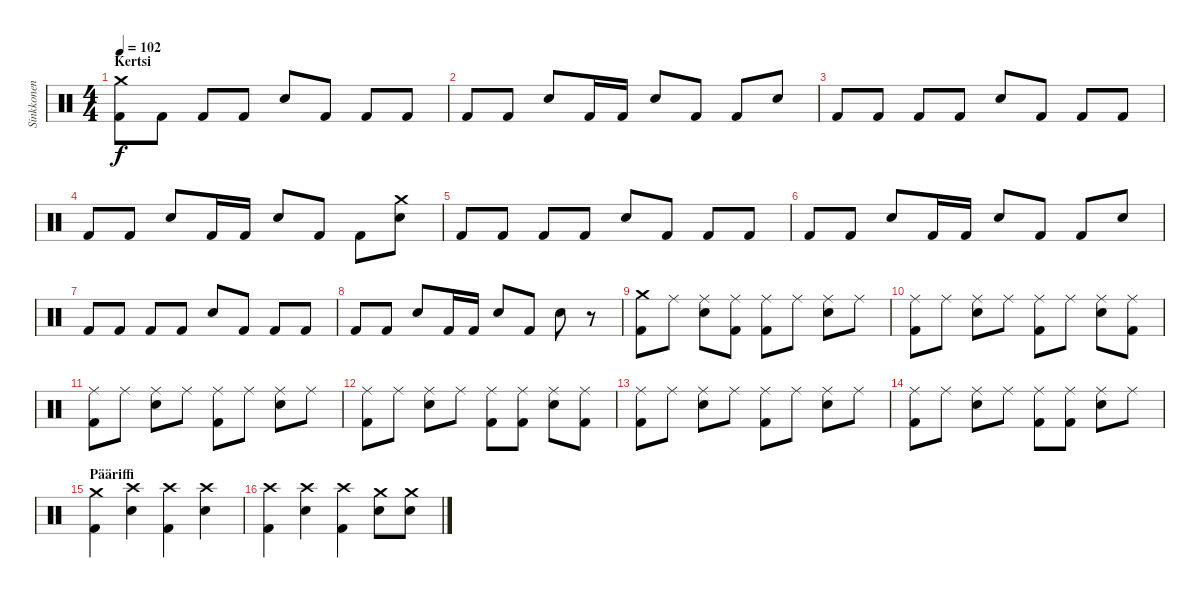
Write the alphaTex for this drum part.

\track ("Sinkkonen" "Sinkkonen") {instrument percussion}
\staff {score}
\articulation defaults
\ts (4 4)
\section ("" "Kertsi")
\tempo 102
\clef neutral
\ks c
("Kick (hit) 2" "Crash medium (hit)").8{dy f} "Kick (hit) 2".8 "Kick (hit) 2".8 "Kick (hit) 2".8 "Snare (hit) 2".8 "Kick (hit) 2".8 "Kick (hit) 2".8 "Kick (hit) 2".8 |
"Kick (hit) 2".8 "Kick (hit) 2".8 "Snare (hit) 2".8 "Kick (hit) 2".16 "Kick (hit) 2".16 "Snare (hit) 2".8 "Kick (hit) 2".8 "Kick (hit) 2".8 "Snare (hit) 2".8 |
"Kick (hit) 2".8 "Kick (hit) 2".8 "Kick (hit) 2".8 "Kick (hit) 2".8 "Snare (hit) 2".8 "Kick (hit) 2".8 "Kick (hit) 2".8 "Kick (hit) 2".8 |
"Kick (hit) 2".8 "Kick (hit) 2".8 "Snare (hit) 2".8 "Kick (hit) 2".16 "Kick (hit) 2".16 "Snare (hit) 2".8 "Kick (hit) 2".8 "Kick (hit) 2".8 ("Crash medium (hit)" "Snare (hit) 2").8 |
"Kick (hit) 2".8 "Kick (hit) 2".8 "Kick (hit) 2".8 "Kick (hit) 2".8 "Snare (hit) 2".8 "Kick (hit) 2".8 "Kick (hit) 2".8 "Kick (hit) 2".8 |
"Kick (hit) 2".8 "Kick (hit) 2".8 "Snare (hit) 2".8 "Kick (hit) 2".16 "Kick (hit) 2".16 "Snare (hit) 2".8 "Kick (hit) 2".8 "Kick (hit) 2".8 "Snare (hit) 2".8 |
"Kick (hit) 2".8 "Kick (hit) 2".8 "Kick (hit) 2".8 "Kick (hit) 2".8 "Snare (hit) 2".8 "Kick (hit) 2".8 "Kick (hit) 2".8 "Kick (hit) 2".8 |
"Kick (hit) 2".8 "Kick (hit) 2".8 "Snare (hit) 2".8 "Kick (hit) 2".16 "Kick (hit) 2".16 "Snare (hit) 2".8 "Kick (hit) 2".8 "Snare (hit) 2".8 r.8 |
("Kick (hit) 2" "Crash medium (hit)").8 "Ride (middle)".8 ("Ride (middle)" "Snare (hit) 2").8 ("Kick (hit) 2" "Ride (middle)").8 ("Kick (hit) 2" "Ride (middle)").8 "Ride (middle)".8 ("Ride (middle)" "Snare (hit) 2").8 "Ride (middle)".8 |
("Kick (hit) 2" "Ride (middle)").8 "Ride (middle)".8 ("Ride (middle)" "Snare (hit) 2").8 "Ride (middle)".8 ("Kick (hit) 2" "Ride (middle)").8 "Ride (middle)".8 ("Ride (middle)" "Snare (hit) 2").8 ("Kick (hit) 2" "Ride (middle)").8 |
("Kick (hit) 2" "Ride (middle)").8 "Ride (middle)".8 ("Ride (middle)" "Snare (hit) 2").8 "Ride (middle)".8 ("Kick (hit) 2" "Ride (middle)").8 "Ride (middle)".8 ("Ride (middle)" "Snare (hit) 2").8 "Ride (middle)".8 |
("Kick (hit) 2" "Ride (middle)").8 "Ride (middle)".8 ("Ride (middle)" "Snare (hit) 2").8 "Ride (middle)".8 ("Kick (hit) 2" "Ride (middle)").8 ("Kick (hit) 2" "Ride (middle)").8 ("Ride (middle)" "Snare (hit) 2").8 ("Kick (hit) 2" "Ride (middle)").8 |
("Kick (hit) 2" "Ride (middle)").8 "Ride (middle)".8 ("Ride (middle)" "Snare (hit) 2").8 "Ride (middle)".8 ("Kick (hit) 2" "Ride (middle)").8 "Ride (middle)".8 ("Ride (middle)" "Snare (hit) 2").8 "Ride (middle)".8 |
("Kick (hit) 2" "Ride (middle)").8 "Ride (middle)".8 ("Ride (middle)" "Snare (hit) 2").8 "Ride (middle)".8 ("Kick (hit) 2" "Ride (middle)").8 ("Kick (hit) 2" "Ride (middle)").8 ("Ride (middle)" "Snare (hit) 2").8 "Ride (middle)".8 |
\section ("" "Pääriffi")
("Kick (hit) 2" "Crash medium (hit)").4 ("Crash high (hit)" "Snare (hit) 2").4 ("Kick (hit) 2" "Crash high (hit)").4 ("Crash high (hit)" "Snare (hit) 2").4 |
("Kick (hit) 2" "Crash high (hit)").4 ("Crash high (hit)" "Snare (hit) 2").4 ("Kick (hit) 2" "Crash high (hit)").4 ("Crash medium (hit)" "Snare (hit) 2").8 ("Crash medium (hit)" "Snare (hit) 2").8
